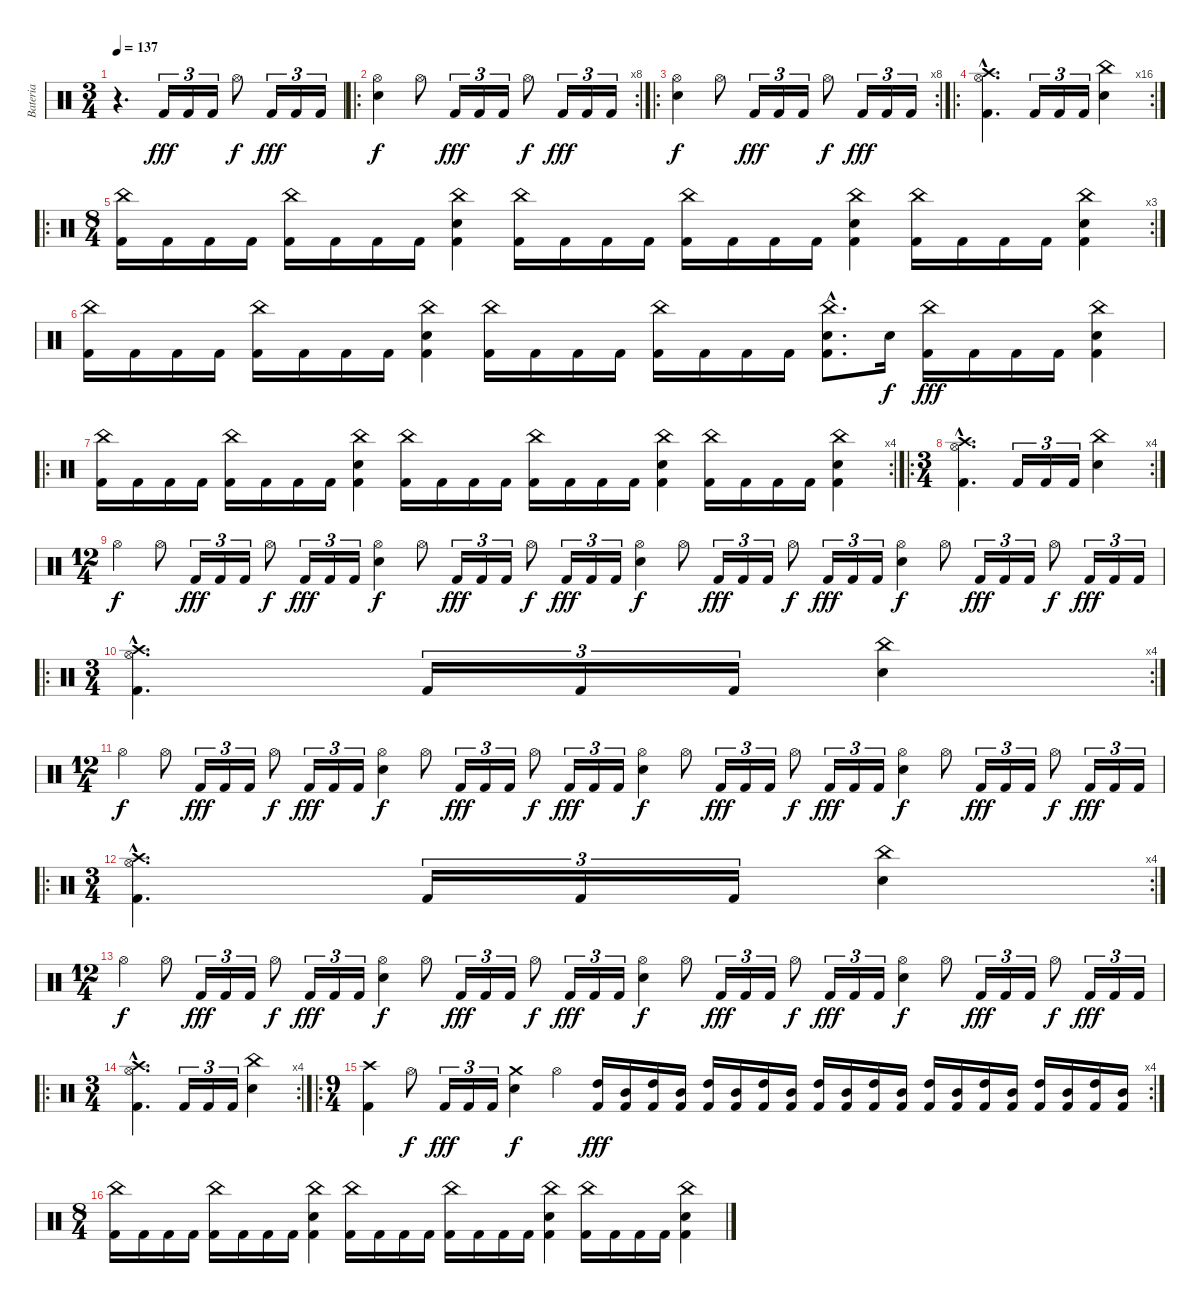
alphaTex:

\track ("Bateria" "Bateria") {instrument percussion}
\staff {score}
\articulation defaults
\ts (3 4)
\tempo 137
\clef neutral
\ks c
r.4{d dy fff} "Kick (hit) 2".16{tu (3 2)} "Kick (hit) 2".16{tu (3 2)} "Kick (hit) 2".16{tu (3 2)} "Hi-Hat (open)".8{dy f} "Kick (hit) 2".16{tu (3 2) dy fff} "Kick (hit) 2".16{tu (3 2)} "Kick (hit) 2".16{tu (3 2)} |
\ro
\rc 8
("Hi-Hat (open)" "Electric Snare (hit)").4{dy f} "Hi-Hat (open)".8 "Kick (hit) 2".16{tu (3 2) dy fff} "Kick (hit) 2".16{tu (3 2)} "Kick (hit) 2".16{tu (3 2)} "Hi-Hat (open)".8{dy f} "Kick (hit) 2".16{tu (3 2) dy fff} "Kick (hit) 2".16{tu (3 2)} "Kick (hit) 2".16{tu (3 2)} |
\ro
\rc 8
("Hi-Hat (open)" "Electric Snare (hit)").4{dy f} "Hi-Hat (open)".8 "Kick (hit) 2".16{tu (3 2) dy fff} "Kick (hit) 2".16{tu (3 2)} "Kick (hit) 2".16{tu (3 2)} "Hi-Hat (open)".8{dy f} "Kick (hit) 2".16{tu (3 2) dy fff} "Kick (hit) 2".16{tu (3 2)} "Kick (hit) 2".16{tu (3 2)} |
\ro
\rc 16
("Kick (hit) 2"{hac} "Hi-Hat (open)"{hac} "Crash high (hit)"{hac}).4{d} "Kick (hit) 2".16{tu (3 2)} "Kick (hit) 2".16{tu (3 2)} "Kick (hit) 2".16{tu (3 2)} ("Electric Snare (hit)" "China (hit)").4 |
\ro
\rc 3
\ts (8 4)
("Kick (hit) 2" "China (hit)").16 "Kick (hit) 2".16 "Kick (hit) 2".16 "Kick (hit) 2".16 ("Kick (hit) 2" "China (hit)").16 "Kick (hit) 2".16 "Kick (hit) 2".16 "Kick (hit) 2".16 ("Kick (hit) 2" "China (hit)" "Electric Snare (hit)").4 ("Kick (hit) 2" "China (hit)").16 "Kick (hit) 2".16 "Kick (hit) 2".16 "Kick (hit) 2".16 ("Kick (hit) 2" "China (hit)").16 "Kick (hit) 2".16 "Kick (hit) 2".16 "Kick (hit) 2".16 ("Kick (hit) 2" "China (hit)" "Electric Snare (hit)").4 ("Kick (hit) 2" "China (hit)").16 "Kick (hit) 2".16 "Kick (hit) 2".16 "Kick (hit) 2".16 ("Kick (hit) 2" "China (hit)" "Electric Snare (hit)").4 |
("Kick (hit) 2" "China (hit)").16 "Kick (hit) 2".16 "Kick (hit) 2".16 "Kick (hit) 2".16 ("Kick (hit) 2" "China (hit)").16 "Kick (hit) 2".16 "Kick (hit) 2".16 "Kick (hit) 2".16 ("Kick (hit) 2" "China (hit)" "Electric Snare (hit)").4 ("Kick (hit) 2" "China (hit)").16 "Kick (hit) 2".16 "Kick (hit) 2".16 "Kick (hit) 2".16 ("Kick (hit) 2" "China (hit)").16 "Kick (hit) 2".16 "Kick (hit) 2".16 "Kick (hit) 2".16 ("Kick (hit) 2"{hac} "China (hit)"{hac} "Electric Snare (hit)"{hac}).8{d} "Electric Snare (hit)".16{dy f} ("Kick (hit) 2" "China (hit)").16{dy fff} "Kick (hit) 2".16 "Kick (hit) 2".16 "Kick (hit) 2".16 ("Kick (hit) 2" "China (hit)" "Electric Snare (hit)").4 |
\ro
\rc 4
("Kick (hit) 2" "China (hit)").16 "Kick (hit) 2".16 "Kick (hit) 2".16 "Kick (hit) 2".16 ("Kick (hit) 2" "China (hit)").16 "Kick (hit) 2".16 "Kick (hit) 2".16 "Kick (hit) 2".16 ("Kick (hit) 2" "China (hit)" "Electric Snare (hit)").4 ("Kick (hit) 2" "China (hit)").16 "Kick (hit) 2".16 "Kick (hit) 2".16 "Kick (hit) 2".16 ("Kick (hit) 2" "China (hit)").16 "Kick (hit) 2".16 "Kick (hit) 2".16 "Kick (hit) 2".16 ("Kick (hit) 2" "China (hit)" "Electric Snare (hit)").4 ("Kick (hit) 2" "China (hit)").16 "Kick (hit) 2".16 "Kick (hit) 2".16 "Kick (hit) 2".16 ("Kick (hit) 2" "China (hit)" "Electric Snare (hit)").4 |
\ro
\rc 4
\ts (3 4)
("Kick (hit) 2"{hac} "Hi-Hat (open)"{hac} "Crash high (hit)"{hac}).4{d} "Kick (hit) 2".16{tu (3 2)} "Kick (hit) 2".16{tu (3 2)} "Kick (hit) 2".16{tu (3 2)} ("Electric Snare (hit)" "China (hit)").4 |
\ts (12 4)
"Hi-Hat (open)".4{dy f} "Hi-Hat (open)".8 "Kick (hit) 2".16{tu (3 2) dy fff} "Kick (hit) 2".16{tu (3 2)} "Kick (hit) 2".16{tu (3 2)} "Hi-Hat (open)".8{dy f} "Kick (hit) 2".16{tu (3 2) dy fff} "Kick (hit) 2".16{tu (3 2)} "Kick (hit) 2".16{tu (3 2)} ("Hi-Hat (open)" "Electric Snare (hit)").4{dy f} "Hi-Hat (open)".8 "Kick (hit) 2".16{tu (3 2) dy fff} "Kick (hit) 2".16{tu (3 2)} "Kick (hit) 2".16{tu (3 2)} "Hi-Hat (open)".8{dy f} "Kick (hit) 2".16{tu (3 2) dy fff} "Kick (hit) 2".16{tu (3 2)} "Kick (hit) 2".16{tu (3 2)} ("Hi-Hat (open)" "Electric Snare (hit)").4{dy f} "Hi-Hat (open)".8 "Kick (hit) 2".16{tu (3 2) dy fff} "Kick (hit) 2".16{tu (3 2)} "Kick (hit) 2".16{tu (3 2)} "Hi-Hat (open)".8{dy f} "Kick (hit) 2".16{tu (3 2) dy fff} "Kick (hit) 2".16{tu (3 2)} "Kick (hit) 2".16{tu (3 2)} ("Hi-Hat (open)" "Electric Snare (hit)").4{dy f} "Hi-Hat (open)".8 "Kick (hit) 2".16{tu (3 2) dy fff} "Kick (hit) 2".16{tu (3 2)} "Kick (hit) 2".16{tu (3 2)} "Hi-Hat (open)".8{dy f} "Kick (hit) 2".16{tu (3 2) dy fff} "Kick (hit) 2".16{tu (3 2)} "Kick (hit) 2".16{tu (3 2)} |
\ro
\rc 4
\ts (3 4)
("Kick (hit) 2"{hac} "Hi-Hat (open)"{hac} "Crash high (hit)"{hac}).4{d} "Kick (hit) 2".16{tu (3 2)} "Kick (hit) 2".16{tu (3 2)} "Kick (hit) 2".16{tu (3 2)} ("Electric Snare (hit)" "China (hit)").4 |
\ts (12 4)
"Hi-Hat (open)".4{dy f} "Hi-Hat (open)".8 "Kick (hit) 2".16{tu (3 2) dy fff} "Kick (hit) 2".16{tu (3 2)} "Kick (hit) 2".16{tu (3 2)} "Hi-Hat (open)".8{dy f} "Kick (hit) 2".16{tu (3 2) dy fff} "Kick (hit) 2".16{tu (3 2)} "Kick (hit) 2".16{tu (3 2)} ("Hi-Hat (open)" "Electric Snare (hit)").4{dy f} "Hi-Hat (open)".8 "Kick (hit) 2".16{tu (3 2) dy fff} "Kick (hit) 2".16{tu (3 2)} "Kick (hit) 2".16{tu (3 2)} "Hi-Hat (open)".8{dy f} "Kick (hit) 2".16{tu (3 2) dy fff} "Kick (hit) 2".16{tu (3 2)} "Kick (hit) 2".16{tu (3 2)} ("Hi-Hat (open)" "Electric Snare (hit)").4{dy f} "Hi-Hat (open)".8 "Kick (hit) 2".16{tu (3 2) dy fff} "Kick (hit) 2".16{tu (3 2)} "Kick (hit) 2".16{tu (3 2)} "Hi-Hat (open)".8{dy f} "Kick (hit) 2".16{tu (3 2) dy fff} "Kick (hit) 2".16{tu (3 2)} "Kick (hit) 2".16{tu (3 2)} ("Hi-Hat (open)" "Electric Snare (hit)").4{dy f} "Hi-Hat (open)".8 "Kick (hit) 2".16{tu (3 2) dy fff} "Kick (hit) 2".16{tu (3 2)} "Kick (hit) 2".16{tu (3 2)} "Hi-Hat (open)".8{dy f} "Kick (hit) 2".16{tu (3 2) dy fff} "Kick (hit) 2".16{tu (3 2)} "Kick (hit) 2".16{tu (3 2)} |
\ro
\rc 4
\ts (3 4)
("Kick (hit) 2"{hac} "Hi-Hat (open)"{hac} "Crash high (hit)"{hac}).4{d} "Kick (hit) 2".16{tu (3 2)} "Kick (hit) 2".16{tu (3 2)} "Kick (hit) 2".16{tu (3 2)} ("Electric Snare (hit)" "China (hit)").4 |
\ts (12 4)
"Hi-Hat (open)".4{dy f} "Hi-Hat (open)".8 "Kick (hit) 2".16{tu (3 2) dy fff} "Kick (hit) 2".16{tu (3 2)} "Kick (hit) 2".16{tu (3 2)} "Hi-Hat (open)".8{dy f} "Kick (hit) 2".16{tu (3 2) dy fff} "Kick (hit) 2".16{tu (3 2)} "Kick (hit) 2".16{tu (3 2)} ("Hi-Hat (open)" "Electric Snare (hit)").4{dy f} "Hi-Hat (open)".8 "Kick (hit) 2".16{tu (3 2) dy fff} "Kick (hit) 2".16{tu (3 2)} "Kick (hit) 2".16{tu (3 2)} "Hi-Hat (open)".8{dy f} "Kick (hit) 2".16{tu (3 2) dy fff} "Kick (hit) 2".16{tu (3 2)} "Kick (hit) 2".16{tu (3 2)} ("Hi-Hat (open)" "Electric Snare (hit)").4{dy f} "Hi-Hat (open)".8 "Kick (hit) 2".16{tu (3 2) dy fff} "Kick (hit) 2".16{tu (3 2)} "Kick (hit) 2".16{tu (3 2)} "Hi-Hat (open)".8{dy f} "Kick (hit) 2".16{tu (3 2) dy fff} "Kick (hit) 2".16{tu (3 2)} "Kick (hit) 2".16{tu (3 2)} ("Hi-Hat (open)" "Electric Snare (hit)").4{dy f} "Hi-Hat (open)".8 "Kick (hit) 2".16{tu (3 2) dy fff} "Kick (hit) 2".16{tu (3 2)} "Kick (hit) 2".16{tu (3 2)} "Hi-Hat (open)".8{dy f} "Kick (hit) 2".16{tu (3 2) dy fff} "Kick (hit) 2".16{tu (3 2)} "Kick (hit) 2".16{tu (3 2)} |
\ro
\rc 4
\ts (3 4)
("Kick (hit) 2"{hac} "Hi-Hat (open)"{hac} "Crash high (hit)"{hac}).4{d} "Kick (hit) 2".16{tu (3 2)} "Kick (hit) 2".16{tu (3 2)} "Kick (hit) 2".16{tu (3 2)} ("Electric Snare (hit)" "China (hit)").4 |
\ro
\rc 4
\ts (9 4)
("Kick (hit) 2" "Crash high (hit)").4 "Hi-Hat (open)".8{dy f} "Kick (hit) 2".16{tu (3 2) dy fff} "Kick (hit) 2".16{tu (3 2)} "Kick (hit) 2".16{tu (3 2)} ("Electric Snare (hit)" "Crash medium (hit)").4{dy f} "Hi-Hat (open)".4 ("Kick (hit) 2" "High Tom (hit)").16{dy fff} ("Kick (hit) 2" "Mid Tom (hit)").16 ("Kick (hit) 2" "High Tom (hit)").16 ("Kick (hit) 2" "Mid Tom (hit)").16 ("Kick (hit) 2" "High Tom (hit)").16 ("Kick (hit) 2" "Mid Tom (hit)").16 ("Kick (hit) 2" "High Tom (hit)").16 ("Kick (hit) 2" "Mid Tom (hit)").16 ("Kick (hit) 2" "High Tom (hit)").16 ("Kick (hit) 2" "Mid Tom (hit)").16 ("Kick (hit) 2" "High Tom (hit)").16 ("Kick (hit) 2" "Mid Tom (hit)").16 ("Kick (hit) 2" "High Tom (hit)").16 ("Kick (hit) 2" "Mid Tom (hit)").16 ("Kick (hit) 2" "High Tom (hit)").16 ("Kick (hit) 2" "Mid Tom (hit)").16 ("Kick (hit) 2" "High Tom (hit)").16 ("Kick (hit) 2" "Mid Tom (hit)").16 ("Kick (hit) 2" "High Tom (hit)").16 ("Kick (hit) 2" "Mid Tom (hit)").16 |
\ts (8 4)
("Kick (hit) 2" "China (hit)").16 "Kick (hit) 2".16 "Kick (hit) 2".16 "Kick (hit) 2".16 ("Kick (hit) 2" "China (hit)").16 "Kick (hit) 2".16 "Kick (hit) 2".16 "Kick (hit) 2".16 ("Kick (hit) 2" "China (hit)" "Electric Snare (hit)").4 ("Kick (hit) 2" "China (hit)").16 "Kick (hit) 2".16 "Kick (hit) 2".16 "Kick (hit) 2".16 ("Kick (hit) 2" "China (hit)").16 "Kick (hit) 2".16 "Kick (hit) 2".16 "Kick (hit) 2".16 ("Kick (hit) 2" "China (hit)" "Electric Snare (hit)").4 ("Kick (hit) 2" "China (hit)").16 "Kick (hit) 2".16 "Kick (hit) 2".16 "Kick (hit) 2".16 ("Kick (hit) 2" "China (hit)" "Electric Snare (hit)").4
